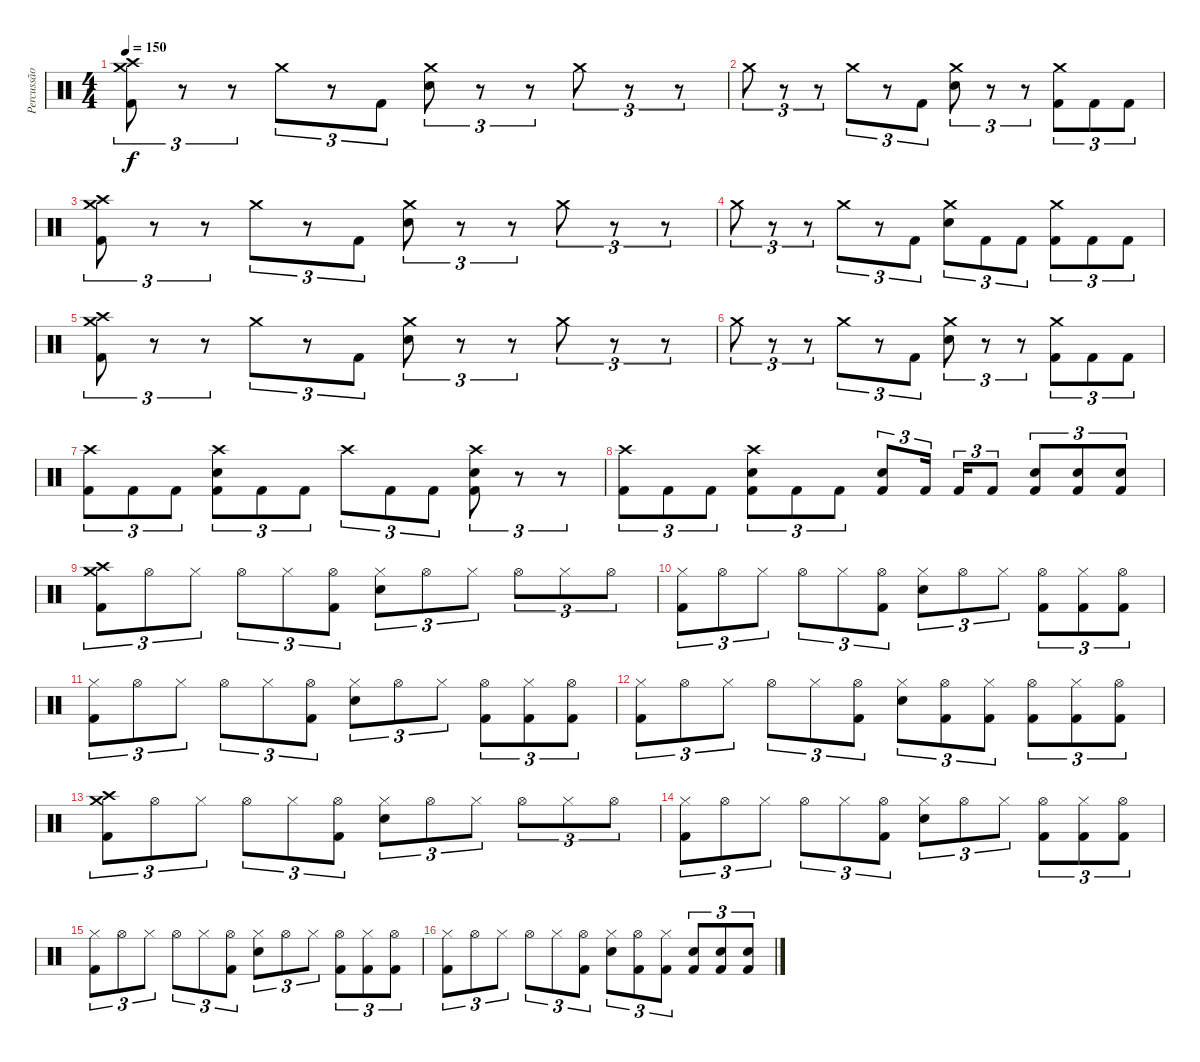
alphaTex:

\track ("Percussão" "Percussão") {instrument percussion}
\staff {score}
\articulation defaults
\ts (4 4)
\tempo 150
\clef neutral
\ks c
("Crash high (hit)" "Crash medium (hit)" "Kick (hit) 2").8{tu (3 2) dy f} r.8{tu (3 2)} r.8{tu (3 2)} "Crash medium (hit)".8{tu (3 2)} r.8{tu (3 2)} "Kick (hit) 2".8{tu (3 2)} ("Crash medium (hit)" "Snare (hit) 2").8{tu (3 2)} r.8{tu (3 2)} r.8{tu (3 2)} "Crash medium (hit)".8{tu (3 2)} r.8{tu (3 2)} r.8{tu (3 2)} |
"Crash medium (hit)".8{tu (3 2)} r.8{tu (3 2)} r.8{tu (3 2)} "Crash medium (hit)".8{tu (3 2)} r.8{tu (3 2)} "Kick (hit) 2".8{tu (3 2)} ("Crash medium (hit)" "Snare (hit) 2").8{tu (3 2)} r.8{tu (3 2)} r.8{tu (3 2)} ("Crash medium (hit)" "Kick (hit) 2").8{tu (3 2)} "Kick (hit) 2".8{tu (3 2)} "Kick (hit) 2".8{tu (3 2)} |
("Crash high (hit)" "Crash medium (hit)" "Kick (hit) 2").8{tu (3 2)} r.8{tu (3 2)} r.8{tu (3 2)} "Crash medium (hit)".8{tu (3 2)} r.8{tu (3 2)} "Kick (hit) 2".8{tu (3 2)} ("Crash medium (hit)" "Snare (hit) 2").8{tu (3 2)} r.8{tu (3 2)} r.8{tu (3 2)} "Crash medium (hit)".8{tu (3 2)} r.8{tu (3 2)} r.8{tu (3 2)} |
"Crash medium (hit)".8{tu (3 2)} r.8{tu (3 2)} r.8{tu (3 2)} "Crash medium (hit)".8{tu (3 2)} r.8{tu (3 2)} "Kick (hit) 2".8{tu (3 2)} ("Crash medium (hit)" "Snare (hit) 2").8{tu (3 2)} "Kick (hit) 2".8{tu (3 2)} "Kick (hit) 2".8{tu (3 2)} ("Crash medium (hit)" "Kick (hit) 2").8{tu (3 2)} "Kick (hit) 2".8{tu (3 2)} "Kick (hit) 2".8{tu (3 2)} |
("Crash high (hit)" "Crash medium (hit)" "Kick (hit) 2").8{tu (3 2)} r.8{tu (3 2)} r.8{tu (3 2)} "Crash medium (hit)".8{tu (3 2)} r.8{tu (3 2)} "Kick (hit) 2".8{tu (3 2)} ("Crash medium (hit)" "Snare (hit) 2").8{tu (3 2)} r.8{tu (3 2)} r.8{tu (3 2)} "Crash medium (hit)".8{tu (3 2)} r.8{tu (3 2)} r.8{tu (3 2)} |
"Crash medium (hit)".8{tu (3 2)} r.8{tu (3 2)} r.8{tu (3 2)} "Crash medium (hit)".8{tu (3 2)} r.8{tu (3 2)} "Kick (hit) 2".8{tu (3 2)} ("Crash medium (hit)" "Snare (hit) 2").8{tu (3 2)} r.8{tu (3 2)} r.8{tu (3 2)} ("Crash medium (hit)" "Kick (hit) 2").8{tu (3 2)} "Kick (hit) 2".8{tu (3 2)} "Kick (hit) 2".8{tu (3 2)} |
("Crash high (hit)" "Kick (hit) 2").8{tu (3 2)} "Kick (hit) 2".8{tu (3 2)} "Kick (hit) 2".8{tu (3 2)} ("Crash high (hit)" "Snare (hit) 2" "Kick (hit) 2").8{tu (3 2)} "Kick (hit) 2".8{tu (3 2)} "Kick (hit) 2".8{tu (3 2)} "Crash high (hit)".8{tu (3 2)} "Kick (hit) 2".8{tu (3 2)} "Kick (hit) 2".8{tu (3 2)} ("Crash high (hit)" "Snare (hit) 2" "Kick (hit) 2").8{tu (3 2)} r.8{tu (3 2)} r.8{tu (3 2)} |
("Crash high (hit)" "Kick (hit) 2").8{tu (3 2)} "Kick (hit) 2".8{tu (3 2)} "Kick (hit) 2".8{tu (3 2)} ("Crash high (hit)" "Snare (hit) 2" "Kick (hit) 2").8{tu (3 2)} "Kick (hit) 2".8{tu (3 2)} "Kick (hit) 2".8{tu (3 2)} ("Snare (hit) 2" "Kick (hit) 2").8{tu (3 2)} "Kick (hit) 2".16{tu (3 2) beam splitsecondary} "Kick (hit) 2".16{tu (3 2)} "Kick (hit) 2".8{tu (3 2)} ("Snare (hit) 2" "Kick (hit) 2").8{tu (3 2)} ("Snare (hit) 2" "Kick (hit) 2").8{tu (3 2)} ("Snare (hit) 2" "Kick (hit) 2").8{tu (3 2)} |
("Crash high (hit)" "Crash medium (hit)" "Kick (hit) 2").8{tu (3 2)} "Hi-Hat (open)".8{tu (3 2)} "Hi-Hat (closed)".8{tu (3 2)} "Hi-Hat (open)".8{tu (3 2)} "Hi-Hat (closed)".8{tu (3 2)} ("Hi-Hat (open)" "Kick (hit) 2").8{tu (3 2)} ("Hi-Hat (closed)" "Snare (hit) 2").8{tu (3 2)} "Hi-Hat (open)".8{tu (3 2)} "Hi-Hat (closed)".8{tu (3 2)} "Hi-Hat (open)".8{tu (3 2)} "Hi-Hat (closed)".8{tu (3 2)} "Hi-Hat (open)".8{tu (3 2)} |
("Hi-Hat (closed)" "Kick (hit) 2").8{tu (3 2)} "Hi-Hat (open)".8{tu (3 2)} "Hi-Hat (closed)".8{tu (3 2)} "Hi-Hat (open)".8{tu (3 2)} "Hi-Hat (closed)".8{tu (3 2)} ("Hi-Hat (open)" "Kick (hit) 2").8{tu (3 2)} ("Hi-Hat (closed)" "Snare (hit) 2").8{tu (3 2)} "Hi-Hat (open)".8{tu (3 2)} "Hi-Hat (closed)".8{tu (3 2)} ("Hi-Hat (open)" "Kick (hit) 2").8{tu (3 2)} ("Hi-Hat (closed)" "Kick (hit) 2").8{tu (3 2)} ("Hi-Hat (open)" "Kick (hit) 2").8{tu (3 2)} |
("Hi-Hat (closed)" "Kick (hit) 2").8{tu (3 2)} "Hi-Hat (open)".8{tu (3 2)} "Hi-Hat (closed)".8{tu (3 2)} "Hi-Hat (open)".8{tu (3 2)} "Hi-Hat (closed)".8{tu (3 2)} ("Hi-Hat (open)" "Kick (hit) 2").8{tu (3 2)} ("Hi-Hat (closed)" "Snare (hit) 2").8{tu (3 2)} "Hi-Hat (open)".8{tu (3 2)} "Hi-Hat (closed)".8{tu (3 2)} ("Hi-Hat (open)" "Kick (hit) 2").8{tu (3 2)} ("Hi-Hat (closed)" "Kick (hit) 2").8{tu (3 2)} ("Hi-Hat (open)" "Kick (hit) 2").8{tu (3 2)} |
("Hi-Hat (closed)" "Kick (hit) 2").8{tu (3 2)} "Hi-Hat (open)".8{tu (3 2)} "Hi-Hat (closed)".8{tu (3 2)} "Hi-Hat (open)".8{tu (3 2)} "Hi-Hat (closed)".8{tu (3 2)} ("Hi-Hat (open)" "Kick (hit) 2").8{tu (3 2)} ("Hi-Hat (closed)" "Snare (hit) 2").8{tu (3 2)} ("Hi-Hat (open)" "Kick (hit) 2").8{tu (3 2)} ("Hi-Hat (closed)" "Kick (hit) 2").8{tu (3 2)} ("Hi-Hat (open)" "Kick (hit) 2").8{tu (3 2)} ("Hi-Hat (closed)" "Kick (hit) 2").8{tu (3 2)} ("Hi-Hat (open)" "Kick (hit) 2").8{tu (3 2)} |
("Crash high (hit)" "Crash medium (hit)" "Kick (hit) 2").8{tu (3 2)} "Hi-Hat (open)".8{tu (3 2)} "Hi-Hat (closed)".8{tu (3 2)} "Hi-Hat (open)".8{tu (3 2)} "Hi-Hat (closed)".8{tu (3 2)} ("Hi-Hat (open)" "Kick (hit) 2").8{tu (3 2)} ("Hi-Hat (closed)" "Snare (hit) 2").8{tu (3 2)} "Hi-Hat (open)".8{tu (3 2)} "Hi-Hat (closed)".8{tu (3 2)} "Hi-Hat (open)".8{tu (3 2)} "Hi-Hat (closed)".8{tu (3 2)} "Hi-Hat (open)".8{tu (3 2)} |
("Hi-Hat (closed)" "Kick (hit) 2").8{tu (3 2)} "Hi-Hat (open)".8{tu (3 2)} "Hi-Hat (closed)".8{tu (3 2)} "Hi-Hat (open)".8{tu (3 2)} "Hi-Hat (closed)".8{tu (3 2)} ("Hi-Hat (open)" "Kick (hit) 2").8{tu (3 2)} ("Hi-Hat (closed)" "Snare (hit) 2").8{tu (3 2)} "Hi-Hat (open)".8{tu (3 2)} "Hi-Hat (closed)".8{tu (3 2)} ("Hi-Hat (open)" "Kick (hit) 2").8{tu (3 2)} ("Hi-Hat (closed)" "Kick (hit) 2").8{tu (3 2)} ("Hi-Hat (open)" "Kick (hit) 2").8{tu (3 2)} |
("Hi-Hat (closed)" "Kick (hit) 2").8{tu (3 2)} "Hi-Hat (open)".8{tu (3 2)} "Hi-Hat (closed)".8{tu (3 2)} "Hi-Hat (open)".8{tu (3 2)} "Hi-Hat (closed)".8{tu (3 2)} ("Hi-Hat (open)" "Kick (hit) 2").8{tu (3 2)} ("Hi-Hat (closed)" "Snare (hit) 2").8{tu (3 2)} "Hi-Hat (open)".8{tu (3 2)} "Hi-Hat (closed)".8{tu (3 2)} ("Hi-Hat (open)" "Kick (hit) 2").8{tu (3 2)} ("Hi-Hat (closed)" "Kick (hit) 2").8{tu (3 2)} ("Hi-Hat (open)" "Kick (hit) 2").8{tu (3 2)} |
("Hi-Hat (closed)" "Kick (hit) 2").8{tu (3 2)} "Hi-Hat (open)".8{tu (3 2)} "Hi-Hat (closed)".8{tu (3 2)} "Hi-Hat (open)".8{tu (3 2)} "Hi-Hat (closed)".8{tu (3 2)} ("Hi-Hat (open)" "Kick (hit) 2").8{tu (3 2)} ("Hi-Hat (closed)" "Snare (hit) 2").8{tu (3 2)} ("Hi-Hat (open)" "Kick (hit) 2").8{tu (3 2)} ("Hi-Hat (closed)" "Kick (hit) 2").8{tu (3 2)} ("Snare (hit) 2" "Kick (hit) 2").8{tu (3 2)} ("Snare (hit) 2" "Kick (hit) 2").8{tu (3 2)} ("Snare (hit) 2" "Kick (hit) 2").8{tu (3 2)}
